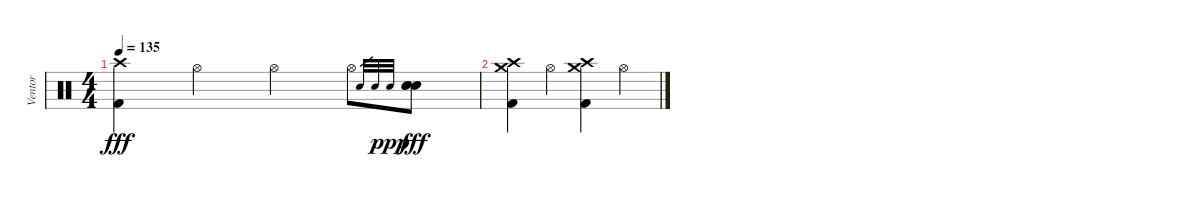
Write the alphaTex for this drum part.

\track ("Ventor" "Ventor") {instrument percussion}
\staff {score}
\articulation defaults
\ts (4 4)
\tempo 135
\clef neutral
\ks c
("Crash high (hit)" "Kick (hit) 2").4{dy fff} "Hi-Hat (open)".4 "Hi-Hat (open)".4 "Hi-Hat (open)".8 "Electric Snare (hit)".32{gr} "Electric Snare (hit)".32{gr} "Electric Snare (hit)".32{gr dy ppp} ("Electric Snare (hit)" "Electric Snare (hit)" "Electric Snare (hit)").8{dy fff} |
("Crash medium (hit)" "Crash high (hit)" "Kick (hit) 2").4 "Hi-Hat (open)".4 ("Crash medium (hit)" "Crash high (hit)" "Kick (hit) 2").4 "Hi-Hat (open)".4
